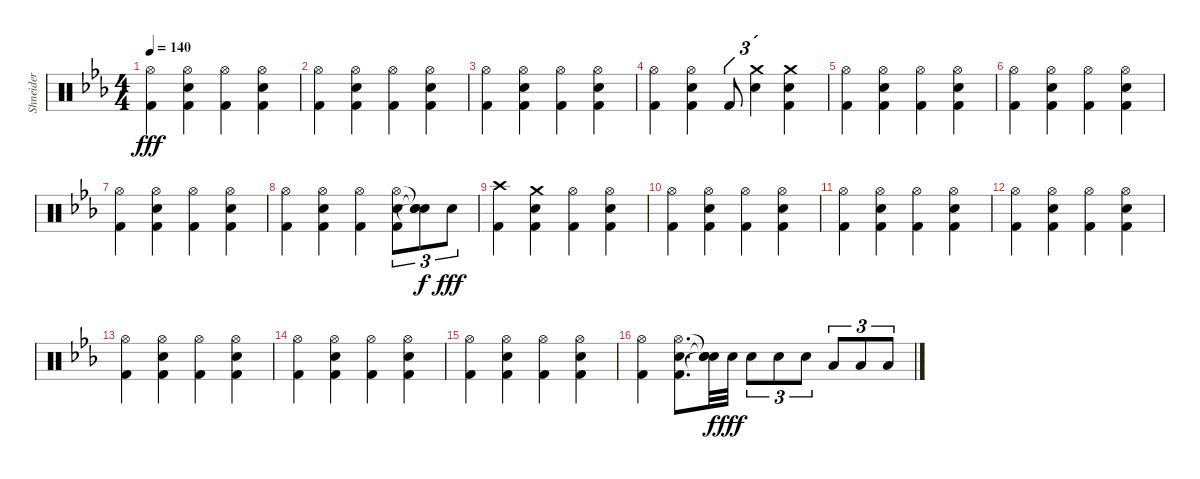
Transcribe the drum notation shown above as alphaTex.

\track ("Shneider" "Shneider") {instrument percussion}
\staff {score}
\articulation defaults
\ts (4 4)
\tempo 140
\clef neutral
\ks eb
("Hi-Hat (open)" "Kick (hit) 2").4{dy fff} ("Hi-Hat (open)" "Snare (hit) 2" "Kick (hit) 2").4 ("Hi-Hat (open)" "Kick (hit) 2").4 ("Hi-Hat (open)" "Snare (hit) 2" "Kick (hit) 2").4 |
("Hi-Hat (open)" "Kick (hit) 2").4 ("Hi-Hat (open)" "Snare (hit) 2" "Kick (hit) 2").4 ("Hi-Hat (open)" "Kick (hit) 2").4 ("Hi-Hat (open)" "Snare (hit) 2" "Kick (hit) 2").4 |
("Hi-Hat (open)" "Kick (hit) 2").4 ("Hi-Hat (open)" "Snare (hit) 2" "Kick (hit) 2").4 ("Hi-Hat (open)" "Kick (hit) 2").4 ("Hi-Hat (open)" "Snare (hit) 2" "Kick (hit) 2").4 |
("Hi-Hat (open)" "Kick (hit) 2").4 ("Hi-Hat (open)" "Snare (hit) 2" "Kick (hit) 2").4 "Kick (hit) 2".8{tu (3 2)} ("Crash medium (hit)" "Snare (hit) 2").4{tu (3 2)} ("Crash medium (hit)" "Snare (hit) 2" "Kick (hit) 2").4 |
("Hi-Hat (open)" "Kick (hit) 2").4 ("Hi-Hat (open)" "Snare (hit) 2" "Kick (hit) 2").4 ("Hi-Hat (open)" "Kick (hit) 2").4 ("Hi-Hat (open)" "Snare (hit) 2" "Kick (hit) 2").4 |
("Hi-Hat (open)" "Kick (hit) 2").4 ("Hi-Hat (open)" "Snare (hit) 2" "Kick (hit) 2").4 ("Hi-Hat (open)" "Kick (hit) 2").4 ("Hi-Hat (open)" "Snare (hit) 2" "Kick (hit) 2").4 |
("Hi-Hat (open)" "Kick (hit) 2").4 ("Hi-Hat (open)" "Snare (hit) 2" "Kick (hit) 2").4 ("Hi-Hat (open)" "Kick (hit) 2").4 ("Hi-Hat (open)" "Snare (hit) 2" "Kick (hit) 2").4 |
("Hi-Hat (open)" "Kick (hit) 2").4 ("Hi-Hat (open)" "Snare (hit) 2" "Kick (hit) 2").4 ("Hi-Hat (open)" "Kick (hit) 2").4 ("Hi-Hat (open)" "Snare (hit) 2" "Kick (hit) 2").8{tu (3 2)} ("Snare (hit)"{t} "Snare (hit)"{t} "Snare (hit)"{t}).8{tu (3 2) dy f} "Snare (hit) 2".8{tu (3 2) dy fff} |
("Crash high (hit)" "Kick (hit) 2").4 ("Crash medium (hit)" "Snare (hit) 2" "Kick (hit) 2").4 ("Hi-Hat (open)" "Kick (hit) 2").4 ("Hi-Hat (open)" "Snare (hit) 2" "Kick (hit) 2").4 |
("Hi-Hat (open)" "Kick (hit) 2").4 ("Hi-Hat (open)" "Snare (hit) 2" "Kick (hit) 2").4 ("Hi-Hat (open)" "Kick (hit) 2").4 ("Hi-Hat (open)" "Snare (hit) 2" "Kick (hit) 2").4 |
("Hi-Hat (open)" "Kick (hit) 2").4 ("Hi-Hat (open)" "Snare (hit) 2" "Kick (hit) 2").4 ("Hi-Hat (open)" "Kick (hit) 2").4 ("Hi-Hat (open)" "Snare (hit) 2" "Kick (hit) 2").4 |
("Hi-Hat (open)" "Kick (hit) 2").4 ("Hi-Hat (open)" "Snare (hit) 2" "Kick (hit) 2").4 ("Hi-Hat (open)" "Kick (hit) 2").4 ("Hi-Hat (open)" "Snare (hit) 2" "Kick (hit) 2").4 |
("Hi-Hat (open)" "Kick (hit) 2").4 ("Hi-Hat (open)" "Snare (hit) 2" "Kick (hit) 2").4 ("Hi-Hat (open)" "Kick (hit) 2").4 ("Hi-Hat (open)" "Snare (hit) 2" "Kick (hit) 2").4 |
("Hi-Hat (open)" "Kick (hit) 2").4 ("Hi-Hat (open)" "Snare (hit) 2" "Kick (hit) 2").4 ("Hi-Hat (open)" "Kick (hit) 2").4 ("Hi-Hat (open)" "Snare (hit) 2" "Kick (hit) 2").4 |
("Hi-Hat (open)" "Kick (hit) 2").4 ("Hi-Hat (open)" "Snare (hit) 2" "Kick (hit) 2").4 ("Hi-Hat (open)" "Kick (hit) 2").4 ("Hi-Hat (open)" "Snare (hit) 2" "Kick (hit) 2").4 |
("Hi-Hat (open)" "Kick (hit) 2").4 ("Hi-Hat (open)" "Snare (hit) 2" "Kick (hit) 2").8{d} ("Snare (hit)"{t} "Snare (hit)"{t} "Snare (hit)"{t}).32{dy f} "Snare (hit) 2".32{dy fff} "Snare (hit) 2".8{tu (3 2)} "Snare (hit) 2".8{tu (3 2)} "Snare (hit) 2".8{tu (3 2)} "Low Tom (hit)".8{tu (3 2)} "Low Tom (hit)".8{tu (3 2)} "Low Tom (hit)".8{tu (3 2)}
